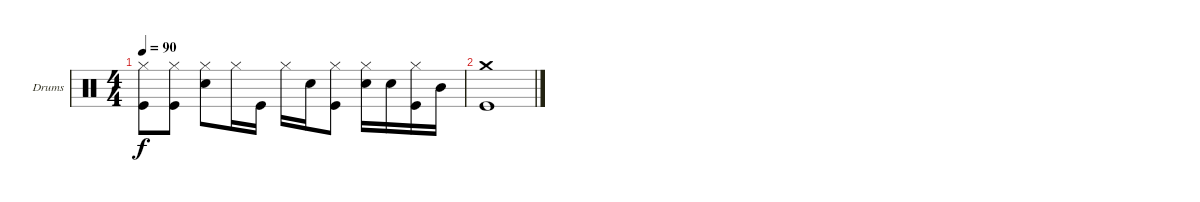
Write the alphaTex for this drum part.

\defaultSystemsLayout 4
\bracketExtendMode groupsimilarinstruments
\firstSystemTrackNameOrientation horizontal
\otherSystemsTrackNameOrientation horizontal
\track ("Drums" "Drums") {instrument percussion}
\staff {score}
\articulation defaults
\ts (4 4)
\tempo 90
\clef neutral
\scale
0.333333
\ks c
("Hi-Hat (closed)" "Kick (hit)").8{dy f} ("Hi-Hat (closed)" "Kick (hit)").8 ("Hi-Hat (closed)" "Snare (hit) 2").8 "Hi-Hat (closed)".16 "Kick (hit)".16 "Hi-Hat (closed)".16 "Snare (hit) 2".16 ("Hi-Hat (closed)" "Kick (hit)").8 ("Hi-Hat (closed)" "Snare (hit) 2").16 "Snare (hit) 2".16 ("Hi-Hat (closed)" "Kick (hit)").16 "Mid Tom (hit)".16 |
("Kick (hit)" "Crash medium (hit)").1
